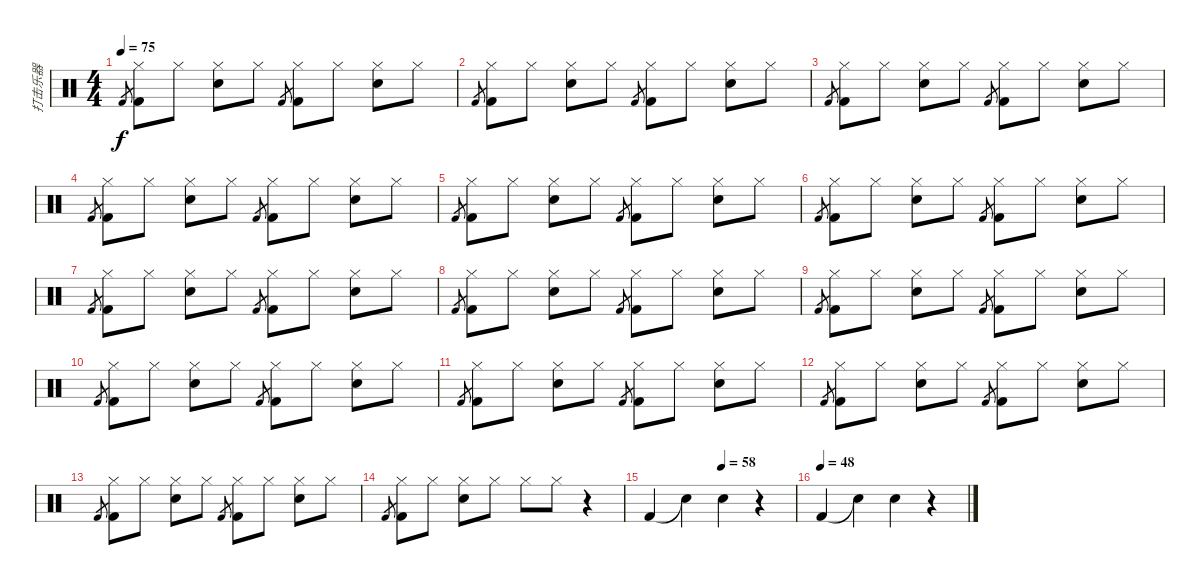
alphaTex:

\track ("打击乐器" "打击乐器") {instrument percussion}
\staff {score}
\articulation defaults
\ts (4 4)
\tempo 75
\clef neutral
\ks c "Kick (hit) 2".8{gr dy f}
("Hi-Hat (closed)" "Kick (hit) 2").8 "Hi-Hat (closed)".8 ("Hi-Hat (closed)" "Electric Snare (hit)").8 "Hi-Hat (closed)".8 "Kick (hit) 2".8{gr} ("Hi-Hat (closed)" "Kick (hit) 2").8 "Hi-Hat (closed)".8 ("Hi-Hat (closed)" "Electric Snare (hit)").8 "Hi-Hat (closed)".8 |
"Kick (hit) 2".8{gr} ("Hi-Hat (closed)" "Kick (hit) 2").8 "Hi-Hat (closed)".8 ("Hi-Hat (closed)" "Electric Snare (hit)").8 "Hi-Hat (closed)".8 "Kick (hit) 2".8{gr} ("Hi-Hat (closed)" "Kick (hit) 2").8 "Hi-Hat (closed)".8 ("Hi-Hat (closed)" "Electric Snare (hit)").8 "Hi-Hat (closed)".8 |
"Kick (hit) 2".8{gr} ("Hi-Hat (closed)" "Kick (hit) 2").8 "Hi-Hat (closed)".8 ("Hi-Hat (closed)" "Electric Snare (hit)").8 "Hi-Hat (closed)".8 "Kick (hit) 2".8{gr} ("Hi-Hat (closed)" "Kick (hit) 2").8 "Hi-Hat (closed)".8 ("Hi-Hat (closed)" "Electric Snare (hit)").8 "Hi-Hat (closed)".8 |
"Kick (hit) 2".8{gr} ("Hi-Hat (closed)" "Kick (hit) 2").8 "Hi-Hat (closed)".8 ("Hi-Hat (closed)" "Electric Snare (hit)").8 "Hi-Hat (closed)".8 "Kick (hit) 2".8{gr} ("Hi-Hat (closed)" "Kick (hit) 2").8 "Hi-Hat (closed)".8 ("Hi-Hat (closed)" "Electric Snare (hit)").8 "Hi-Hat (closed)".8 |
"Kick (hit) 2".8{gr} ("Hi-Hat (closed)" "Kick (hit) 2").8 "Hi-Hat (closed)".8 ("Hi-Hat (closed)" "Electric Snare (hit)").8 "Hi-Hat (closed)".8 "Kick (hit) 2".8{gr} ("Hi-Hat (closed)" "Kick (hit) 2").8 "Hi-Hat (closed)".8 ("Hi-Hat (closed)" "Electric Snare (hit)").8 "Hi-Hat (closed)".8 |
"Kick (hit) 2".8{gr} ("Hi-Hat (closed)" "Kick (hit) 2").8 "Hi-Hat (closed)".8 ("Hi-Hat (closed)" "Electric Snare (hit)").8 "Hi-Hat (closed)".8 "Kick (hit) 2".8{gr} ("Hi-Hat (closed)" "Kick (hit) 2").8 "Hi-Hat (closed)".8 ("Hi-Hat (closed)" "Electric Snare (hit)").8 "Hi-Hat (closed)".8 |
"Kick (hit) 2".8{gr} ("Hi-Hat (closed)" "Kick (hit) 2").8 "Hi-Hat (closed)".8 ("Hi-Hat (closed)" "Electric Snare (hit)").8 "Hi-Hat (closed)".8 "Kick (hit) 2".8{gr} ("Hi-Hat (closed)" "Kick (hit) 2").8 "Hi-Hat (closed)".8 ("Hi-Hat (closed)" "Electric Snare (hit)").8 "Hi-Hat (closed)".8 |
"Kick (hit) 2".8{gr} ("Hi-Hat (closed)" "Kick (hit) 2").8 "Hi-Hat (closed)".8 ("Hi-Hat (closed)" "Electric Snare (hit)").8 "Hi-Hat (closed)".8 "Kick (hit) 2".8{gr} ("Hi-Hat (closed)" "Kick (hit) 2").8 "Hi-Hat (closed)".8 ("Hi-Hat (closed)" "Electric Snare (hit)").8 "Hi-Hat (closed)".8 |
"Kick (hit) 2".8{gr} ("Hi-Hat (closed)" "Kick (hit) 2").8 "Hi-Hat (closed)".8 ("Hi-Hat (closed)" "Electric Snare (hit)").8 "Hi-Hat (closed)".8 "Kick (hit) 2".8{gr} ("Hi-Hat (closed)" "Kick (hit) 2").8 "Hi-Hat (closed)".8 ("Hi-Hat (closed)" "Electric Snare (hit)").8 "Hi-Hat (closed)".8 |
"Kick (hit) 2".8{gr} ("Hi-Hat (closed)" "Kick (hit) 2").8 "Hi-Hat (closed)".8 ("Hi-Hat (closed)" "Electric Snare (hit)").8 "Hi-Hat (closed)".8 "Kick (hit) 2".8{gr} ("Hi-Hat (closed)" "Kick (hit) 2").8 "Hi-Hat (closed)".8 ("Hi-Hat (closed)" "Electric Snare (hit)").8 "Hi-Hat (closed)".8 |
"Kick (hit) 2".8{gr} ("Hi-Hat (closed)" "Kick (hit) 2").8 "Hi-Hat (closed)".8 ("Hi-Hat (closed)" "Electric Snare (hit)").8 "Hi-Hat (closed)".8 "Kick (hit) 2".8{gr} ("Hi-Hat (closed)" "Kick (hit) 2").8 "Hi-Hat (closed)".8 ("Hi-Hat (closed)" "Electric Snare (hit)").8 "Hi-Hat (closed)".8 |
"Kick (hit) 2".8{gr} ("Hi-Hat (closed)" "Kick (hit) 2").8 "Hi-Hat (closed)".8 ("Hi-Hat (closed)" "Electric Snare (hit)").8 "Hi-Hat (closed)".8 "Kick (hit) 2".8{gr} ("Hi-Hat (closed)" "Kick (hit) 2").8 "Hi-Hat (closed)".8 ("Hi-Hat (closed)" "Electric Snare (hit)").8 "Hi-Hat (closed)".8 |
"Kick (hit) 2".8{gr} ("Hi-Hat (closed)" "Kick (hit) 2").8 "Hi-Hat (closed)".8 ("Hi-Hat (closed)" "Electric Snare (hit)").8 "Hi-Hat (closed)".8 "Kick (hit) 2".8{gr} ("Hi-Hat (closed)" "Kick (hit) 2").8 "Hi-Hat (closed)".8 ("Hi-Hat (closed)" "Electric Snare (hit)").8 "Hi-Hat (closed)".8 |
"Kick (hit) 2".8{gr} ("Hi-Hat (closed)" "Kick (hit) 2").8 "Hi-Hat (closed)".8 ("Hi-Hat (closed)" "Electric Snare (hit)").8 "Hi-Hat (closed)".8 "Hi-Hat (closed)".8 "Hi-Hat (closed)".8 r.4 |
\tempo (58 0.5)
"Kick (hit) 2".4{volume 8} "Snare (hit)"{t}.4 "Electric Snare (hit)".4 r.4 |
\tempo (48)
"Kick (hit) 2".4 "Snare (hit)"{t}.4 "Electric Snare (hit)".4 r.4
